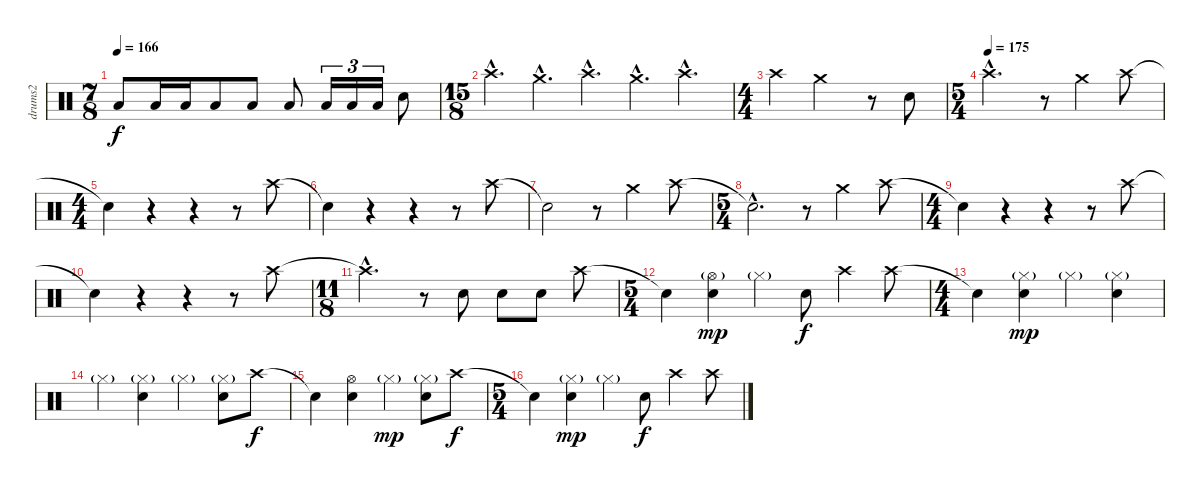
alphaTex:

\track ("drums2" "drums2") {instrument percussion}
\staff {score}
\articulation defaults
\ts (7 8)
\tempo 166
\clef neutral
\ks c "Low Floor Tom (hit)".8{dy f} "Low Floor Tom (hit)".16 "Low Floor Tom (hit)".16 "Low Floor Tom (hit)".8 "Low Floor Tom (hit)".8 "Low Floor Tom (hit)".8 "Low Floor Tom (hit)".16{tu (3 2)} "Low Floor Tom (hit)".16{tu (3 2)} "Low Floor Tom (hit)".16{tu (3 2)} "Snare (hit) 2".8
|
\ts (15 8)
"Crash high (hit)"{hac}.4{d} "Crash medium (hit)"{hac}.4{d} "Crash high (hit)"{hac}.4{d} "Crash medium (hit)"{hac}.4{d} "Crash high (hit)"{hac}.4{d} |
\ts (4 4)
"Crash high (hit)".4 "Crash medium (hit)".2 r.8 "Snare (hit) 2".8 |
\ts (5 4)
\tempo 172
\tempo (175)
"Crash high (hit)"{hac}.2{d} r.8 "Crash medium (hit)".4 "Crash high (hit)".8 |
\ts (4 4)
"Snare (hit)"{t}.4 r.4 r.4 r.8 "Crash high (hit)".8 |
"Snare (hit)"{t}.4 r.4 r.4 r.8 "Crash high (hit)".8 |
"Snare (hit)"{t}.2 r.8 "Crash medium (hit)".4 "Crash high (hit)".8 |
\ts (5 4)
"Snare (hit)"{hac t}.2{d} r.8 "Crash medium (hit)".4 "Crash high (hit)".8 |
\ts (4 4)
"Snare (hit)"{t}.4 r.4 r.4 r.8 "Crash high (hit)".8 |
"Snare (hit)"{t}.4 r.4 r.4 r.8 "Crash high (hit)".8 |
\ts (11 8)
"Crash high (hit)"{hac t}.2{d} r.8 "Snare (hit) 2".8 "Snare (hit) 2".8 "Snare (hit) 2".8 "Crash high (hit)".8 |
\ts (5 4)
"Snare (hit)"{t}.4 ("Hi-Hat (open)"{g} "Snare (hit) 2").4{dy mp} "Hi-Hat (closed)"{g}.4 "Snare (hit) 2".8{dy f} "Crash high (hit)".4 "Crash high (hit)".8 |
\ts (4 4)
"Snare (hit)"{t}.4 ("Hi-Hat (closed)"{g} "Snare (hit) 2").4{dy mp} "Hi-Hat (closed)"{g}.4 ("Hi-Hat (closed)"{g} "Snare (hit) 2").4 |
"Hi-Hat (closed)"{g}.4 ("Hi-Hat (closed)"{g} "Snare (hit) 2").4 "Hi-Hat (closed)"{g}.4 ("Hi-Hat (closed)"{g} "Snare (hit) 2").8 "Crash high (hit)".8{dy f} |
"Snare (hit)"{t}.4 ("Hi-Hat (open)" "Snare (hit) 2").4 "Hi-Hat (closed)"{g}.4{dy mp} ("Hi-Hat (closed)"{g} "Snare (hit) 2").8 "Crash high (hit)".8{dy f} |
\ts (5 4)
"Snare (hit)"{t}.4 ("Hi-Hat (closed)"{g} "Snare (hit) 2").4{dy mp} "Hi-Hat (closed)"{g}.4 "Snare (hit) 2".8{dy f} "Crash high (hit)".4 "Crash high (hit)".8
